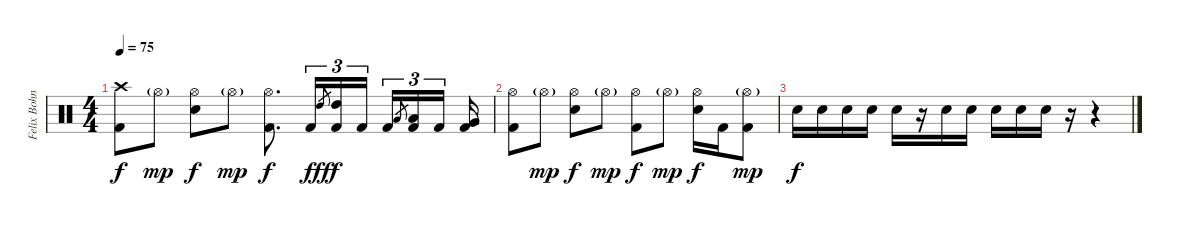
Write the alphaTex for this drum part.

\track ("Felix Bohnke" "Felix Bohn") {instrument percussion}
\staff {score}
\articulation defaults
\ts (4 4)
\tempo 75
\clef neutral
\ks c
("Crash high (hit)" "Kick (hit) 2").8{dy f} "Hi-Hat (open)"{g}.8{dy mp} ("Hi-Hat (open)" "Snare (hit) 2").8{dy f} "Hi-Hat (open)"{g}.8{dy mp} ("Hi-Hat (open)" "Kick (hit) 2").8{d dy f} "Kick (hit) 2".16{tu (3 2)} "High Tom (hit)".8{gr dy fff} ("High Tom (hit)" "Kick (hit) 2").16{tu (3 2) dy f} "Kick (hit) 2".16{tu (3 2) beam splitsecondary} "Kick (hit) 2".16{tu (3 2)} "Low Tom (hit)".8{gr} ("Low Tom (hit)" "Kick (hit) 2").16{tu (3 2)} "Kick (hit) 2".16{tu (3 2) beam splitsecondary} ("Very Low Tom (hit)" "Kick (hit) 2").16 |
("Hi-Hat (open)" "Kick (hit) 2").8 "Hi-Hat (open)"{g}.8{dy mp} ("Hi-Hat (open)" "Snare (hit) 2").8{dy f} "Hi-Hat (open)"{g}.8{dy mp} ("Hi-Hat (open)" "Kick (hit) 2").8{dy f} "Hi-Hat (open)"{g}.8{dy mp} ("Hi-Hat (open)" "Snare (hit) 2").16{dy f} "Kick (hit) 2".16 ("Hi-Hat (open)"{g} "Kick (hit) 2").8{dy mp} |
"Snare (hit) 2".16{dy f} "Snare (hit) 2".16 "Snare (hit) 2".16 "Snare (hit) 2".16 "Snare (hit) 2".16 r.16 "Snare (hit) 2".16 "Snare (hit) 2".16 "Snare (hit) 2".16 "Snare (hit) 2".16 "Snare (hit) 2".16 r.16 r.4
